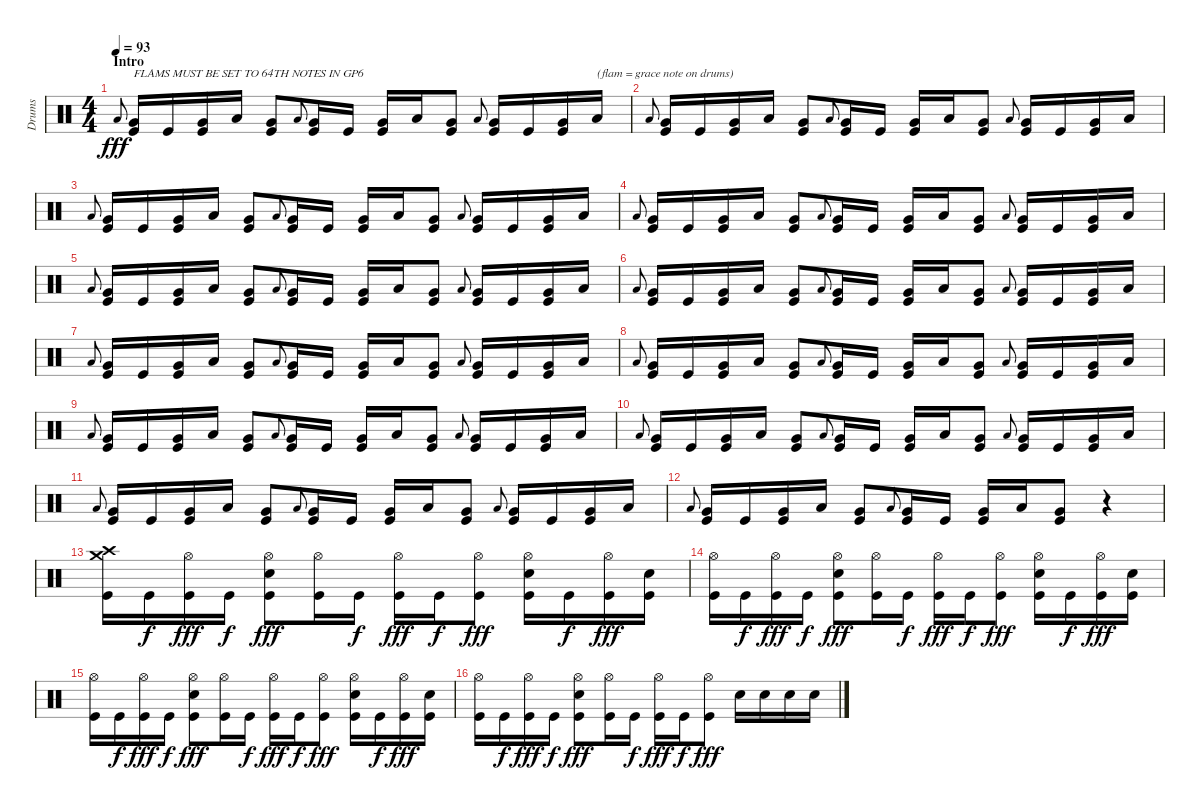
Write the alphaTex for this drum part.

\track ("Drums" "Drums") {instrument percussion}
\staff {score}
\articulation defaults
\ts (4 4)
\section ("" "Intro")
\tempo 93
\clef neutral
\ks c "Low Tom (hit)".8{gr onbeat dy fff}
("Very Low Tom (hit)" "Kick (hit)").16{txt "FLAMS MUST BE SET TO 64TH NOTES IN GP6"} "Kick (hit)".16 ("Very Low Tom (hit)" "Kick (hit)").16 "Low Tom (hit)".16 ("Very Low Tom (hit)" "Kick (hit)").8 "Low Tom (hit)".8{gr onbeat} ("Very Low Tom (hit)" "Kick (hit)").16 "Kick (hit)".16 ("Very Low Tom (hit)" "Kick (hit)").16 "Low Tom (hit)".16 ("Very Low Tom (hit)" "Kick (hit)").8 "Low Tom (hit)".8{gr onbeat} ("Very Low Tom (hit)" "Kick (hit)").16 "Kick (hit)".16 ("Very Low Tom (hit)" "Kick (hit)").16 "Low Tom (hit)".16{txt "(flam = grace note on drums)"} |
"Low Tom (hit)".8{gr onbeat} ("Very Low Tom (hit)" "Kick (hit)").16 "Kick (hit)".16 ("Very Low Tom (hit)" "Kick (hit)").16 "Low Tom (hit)".16 ("Very Low Tom (hit)" "Kick (hit)").8 "Low Tom (hit)".8{gr onbeat} ("Very Low Tom (hit)" "Kick (hit)").16 "Kick (hit)".16 ("Very Low Tom (hit)" "Kick (hit)").16 "Low Tom (hit)".16 ("Very Low Tom (hit)" "Kick (hit)").8 "Low Tom (hit)".8{gr onbeat} ("Very Low Tom (hit)" "Kick (hit)").16 "Kick (hit)".16 ("Very Low Tom (hit)" "Kick (hit)").16 "Low Tom (hit)".16 |
"Low Tom (hit)".8{gr onbeat} ("Very Low Tom (hit)" "Kick (hit)").16 "Kick (hit)".16 ("Very Low Tom (hit)" "Kick (hit)").16 "Low Tom (hit)".16 ("Very Low Tom (hit)" "Kick (hit)").8 "Low Tom (hit)".8{gr onbeat} ("Very Low Tom (hit)" "Kick (hit)").16 "Kick (hit)".16 ("Very Low Tom (hit)" "Kick (hit)").16 "Low Tom (hit)".16 ("Very Low Tom (hit)" "Kick (hit)").8 "Low Tom (hit)".8{gr onbeat} ("Very Low Tom (hit)" "Kick (hit)").16 "Kick (hit)".16 ("Very Low Tom (hit)" "Kick (hit)").16 "Low Tom (hit)".16 |
"Low Tom (hit)".8{gr onbeat} ("Very Low Tom (hit)" "Kick (hit)").16 "Kick (hit)".16 ("Very Low Tom (hit)" "Kick (hit)").16 "Low Tom (hit)".16 ("Very Low Tom (hit)" "Kick (hit)").8 "Low Tom (hit)".8{gr onbeat} ("Very Low Tom (hit)" "Kick (hit)").16 "Kick (hit)".16 ("Very Low Tom (hit)" "Kick (hit)").16 "Low Tom (hit)".16 ("Very Low Tom (hit)" "Kick (hit)").8 "Low Tom (hit)".8{gr onbeat} ("Very Low Tom (hit)" "Kick (hit)").16 "Kick (hit)".16 ("Very Low Tom (hit)" "Kick (hit)").16 "Low Tom (hit)".16 |
"Low Tom (hit)".8{gr onbeat} ("Very Low Tom (hit)" "Kick (hit)").16 "Kick (hit)".16 ("Very Low Tom (hit)" "Kick (hit)").16 "Low Tom (hit)".16 ("Very Low Tom (hit)" "Kick (hit)").8 "Low Tom (hit)".8{gr onbeat} ("Very Low Tom (hit)" "Kick (hit)").16 "Kick (hit)".16 ("Very Low Tom (hit)" "Kick (hit)").16 "Low Tom (hit)".16 ("Very Low Tom (hit)" "Kick (hit)").8 "Low Tom (hit)".8{gr onbeat} ("Very Low Tom (hit)" "Kick (hit)").16 "Kick (hit)".16 ("Very Low Tom (hit)" "Kick (hit)").16 "Low Tom (hit)".16 |
"Low Tom (hit)".8{gr onbeat} ("Very Low Tom (hit)" "Kick (hit)").16 "Kick (hit)".16 ("Very Low Tom (hit)" "Kick (hit)").16 "Low Tom (hit)".16 ("Very Low Tom (hit)" "Kick (hit)").8 "Low Tom (hit)".8{gr onbeat} ("Very Low Tom (hit)" "Kick (hit)").16 "Kick (hit)".16 ("Very Low Tom (hit)" "Kick (hit)").16 "Low Tom (hit)".16 ("Very Low Tom (hit)" "Kick (hit)").8 "Low Tom (hit)".8{gr onbeat} ("Very Low Tom (hit)" "Kick (hit)").16 "Kick (hit)".16 ("Very Low Tom (hit)" "Kick (hit)").16 "Low Tom (hit)".16 |
"Low Tom (hit)".8{gr onbeat} ("Very Low Tom (hit)" "Kick (hit)").16 "Kick (hit)".16 ("Very Low Tom (hit)" "Kick (hit)").16 "Low Tom (hit)".16 ("Very Low Tom (hit)" "Kick (hit)").8 "Low Tom (hit)".8{gr onbeat} ("Very Low Tom (hit)" "Kick (hit)").16 "Kick (hit)".16 ("Very Low Tom (hit)" "Kick (hit)").16 "Low Tom (hit)".16 ("Very Low Tom (hit)" "Kick (hit)").8 "Low Tom (hit)".8{gr onbeat} ("Very Low Tom (hit)" "Kick (hit)").16 "Kick (hit)".16 ("Very Low Tom (hit)" "Kick (hit)").16 "Low Tom (hit)".16 |
"Low Tom (hit)".8{gr onbeat} ("Very Low Tom (hit)" "Kick (hit)").16 "Kick (hit)".16 ("Very Low Tom (hit)" "Kick (hit)").16 "Low Tom (hit)".16 ("Very Low Tom (hit)" "Kick (hit)").8 "Low Tom (hit)".8{gr onbeat} ("Very Low Tom (hit)" "Kick (hit)").16 "Kick (hit)".16 ("Very Low Tom (hit)" "Kick (hit)").16 "Low Tom (hit)".16 ("Very Low Tom (hit)" "Kick (hit)").8 "Low Tom (hit)".8{gr onbeat} ("Very Low Tom (hit)" "Kick (hit)").16 "Kick (hit)".16 ("Very Low Tom (hit)" "Kick (hit)").16 "Low Tom (hit)".16 |
"Low Tom (hit)".8{gr onbeat} ("Very Low Tom (hit)" "Kick (hit)").16 "Kick (hit)".16 ("Very Low Tom (hit)" "Kick (hit)").16 "Low Tom (hit)".16 ("Very Low Tom (hit)" "Kick (hit)").8 "Low Tom (hit)".8{gr onbeat} ("Very Low Tom (hit)" "Kick (hit)").16 "Kick (hit)".16 ("Very Low Tom (hit)" "Kick (hit)").16 "Low Tom (hit)".16 ("Very Low Tom (hit)" "Kick (hit)").8 "Low Tom (hit)".8{gr onbeat} ("Very Low Tom (hit)" "Kick (hit)").16 "Kick (hit)".16 ("Very Low Tom (hit)" "Kick (hit)").16 "Low Tom (hit)".16 |
"Low Tom (hit)".8{gr onbeat} ("Very Low Tom (hit)" "Kick (hit)").16 "Kick (hit)".16 ("Very Low Tom (hit)" "Kick (hit)").16 "Low Tom (hit)".16 ("Very Low Tom (hit)" "Kick (hit)").8 "Low Tom (hit)".8{gr onbeat} ("Very Low Tom (hit)" "Kick (hit)").16 "Kick (hit)".16 ("Very Low Tom (hit)" "Kick (hit)").16 "Low Tom (hit)".16 ("Very Low Tom (hit)" "Kick (hit)").8 "Low Tom (hit)".8{gr onbeat} ("Very Low Tom (hit)" "Kick (hit)").16 "Kick (hit)".16 ("Very Low Tom (hit)" "Kick (hit)").16 "Low Tom (hit)".16 |
"Low Tom (hit)".8{gr onbeat} ("Very Low Tom (hit)" "Kick (hit)").16 "Kick (hit)".16 ("Very Low Tom (hit)" "Kick (hit)").16 "Low Tom (hit)".16 ("Very Low Tom (hit)" "Kick (hit)").8 "Low Tom (hit)".8{gr onbeat} ("Very Low Tom (hit)" "Kick (hit)").16 "Kick (hit)".16 ("Very Low Tom (hit)" "Kick (hit)").16 "Low Tom (hit)".16 ("Very Low Tom (hit)" "Kick (hit)").8 "Low Tom (hit)".8{gr onbeat} ("Very Low Tom (hit)" "Kick (hit)").16 "Kick (hit)".16 ("Very Low Tom (hit)" "Kick (hit)").16 "Low Tom (hit)".16 |
"Low Tom (hit)".8{gr onbeat} ("Very Low Tom (hit)" "Kick (hit)").16 "Kick (hit)".16 ("Very Low Tom (hit)" "Kick (hit)").16 "Low Tom (hit)".16 ("Very Low Tom (hit)" "Kick (hit)").8 "Low Tom (hit)".8{gr onbeat} ("Very Low Tom (hit)" "Kick (hit)").16 "Kick (hit)".16 ("Very Low Tom (hit)" "Kick (hit)").16 "Low Tom (hit)".16 ("Very Low Tom (hit)" "Kick (hit)").8 r.4 |
("Crash high (hit)" "Crash medium (hit)" "Kick (hit)").16 "Kick (hit)".16{dy f} ("Hi-Hat (open)" "Kick (hit)").16{dy fff} "Kick (hit)".16{dy f} ("Hi-Hat (open)" "Electric Snare (hit)" "Kick (hit)").8{dy fff} ("Hi-Hat (open)" "Kick (hit)").16 "Kick (hit)".16{dy f} ("Hi-Hat (open)" "Kick (hit)").16{dy fff} "Kick (hit)".16{dy f} ("Hi-Hat (open)" "Kick (hit)").8{dy fff} ("Hi-Hat (open)" "Electric Snare (hit)" "Kick (hit)").16 "Kick (hit)".16{dy f} ("Hi-Hat (open)" "Kick (hit)").16{dy fff} ("Electric Snare (hit)" "Kick (hit)").16 |
("Hi-Hat (open)" "Kick (hit)").16 "Kick (hit)".16{dy f} ("Hi-Hat (open)" "Kick (hit)").16{dy fff} "Kick (hit)".16{dy f} ("Hi-Hat (open)" "Electric Snare (hit)" "Kick (hit)").8{dy fff} ("Hi-Hat (open)" "Kick (hit)").16 "Kick (hit)".16{dy f} ("Hi-Hat (open)" "Kick (hit)").16{dy fff} "Kick (hit)".16{dy f} ("Hi-Hat (open)" "Kick (hit)").8{dy fff} ("Hi-Hat (open)" "Electric Snare (hit)" "Kick (hit)").16 "Kick (hit)".16{dy f} ("Hi-Hat (open)" "Kick (hit)").16{dy fff} ("Electric Snare (hit)" "Kick (hit)").16 |
("Hi-Hat (open)" "Kick (hit)").16 "Kick (hit)".16{dy f} ("Hi-Hat (open)" "Kick (hit)").16{dy fff} "Kick (hit)".16{dy f} ("Hi-Hat (open)" "Electric Snare (hit)" "Kick (hit)").8{dy fff} ("Hi-Hat (open)" "Kick (hit)").16 "Kick (hit)".16{dy f} ("Hi-Hat (open)" "Kick (hit)").16{dy fff} "Kick (hit)".16{dy f} ("Hi-Hat (open)" "Kick (hit)").8{dy fff} ("Hi-Hat (open)" "Electric Snare (hit)" "Kick (hit)").16 "Kick (hit)".16{dy f} ("Hi-Hat (open)" "Kick (hit)").16{dy fff} ("Electric Snare (hit)" "Kick (hit)").16 |
("Hi-Hat (open)" "Kick (hit)").16 "Kick (hit)".16{dy f} ("Hi-Hat (open)" "Kick (hit)").16{dy fff} "Kick (hit)".16{dy f} ("Hi-Hat (open)" "Electric Snare (hit)" "Kick (hit)").8{dy fff} ("Hi-Hat (open)" "Kick (hit)").16 "Kick (hit)".16{dy f} ("Hi-Hat (open)" "Kick (hit)").16{dy fff} "Kick (hit)".16{dy f} ("Hi-Hat (open)" "Kick (hit)").8{dy fff} "Electric Snare (hit)".16 "Electric Snare (hit)".16 "Electric Snare (hit)".16 "Electric Snare (hit)".16
